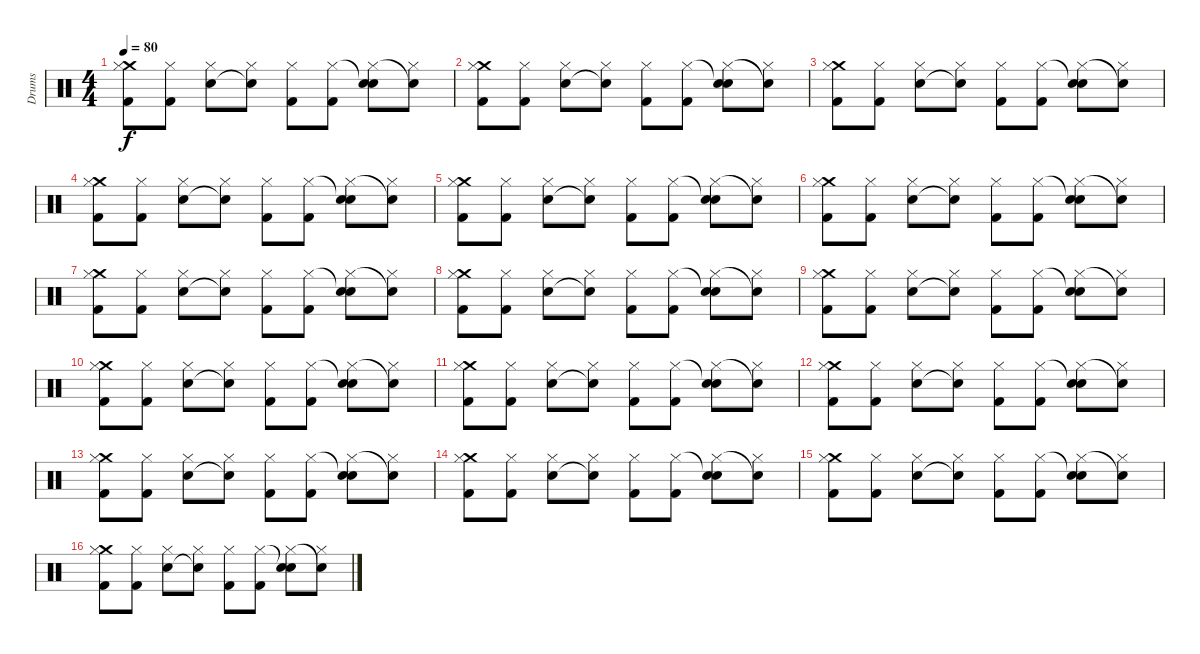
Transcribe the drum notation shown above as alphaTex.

\track ("Drums" "Drums") {instrument percussion}
\staff {score}
\articulation defaults
\ts (4 4)
\tempo 80
\clef neutral
\ks c
("Crash medium (hit)" "Hi-Hat (closed)" "Kick (hit) 2").8{dy f} ("Hi-Hat (closed)" "Kick (hit) 2").8 ("Hi-Hat (closed)" "Electric Snare (hit)").8 ("Hi-Hat (closed)" "Snare (hit)"{t}).8 ("Hi-Hat (closed)" "Kick (hit) 2").8 ("Hi-Hat (closed)" "Kick (hit) 2").8 ("Snare (hit)"{t} "Hi-Hat (closed)" "Electric Snare (hit)").8 ("Hi-Hat (closed)" "Snare (hit)"{t}).8 |
("Crash medium (hit)" "Hi-Hat (closed)" "Kick (hit) 2").8 ("Hi-Hat (closed)" "Kick (hit) 2").8 ("Hi-Hat (closed)" "Electric Snare (hit)").8 ("Hi-Hat (closed)" "Snare (hit)"{t}).8 ("Hi-Hat (closed)" "Kick (hit) 2").8 ("Hi-Hat (closed)" "Kick (hit) 2").8 ("Snare (hit)"{t} "Hi-Hat (closed)" "Electric Snare (hit)").8 ("Hi-Hat (closed)" "Snare (hit)"{t}).8 |
("Crash medium (hit)" "Hi-Hat (closed)" "Kick (hit) 2").8 ("Hi-Hat (closed)" "Kick (hit) 2").8 ("Hi-Hat (closed)" "Electric Snare (hit)").8 ("Hi-Hat (closed)" "Snare (hit)"{t}).8 ("Hi-Hat (closed)" "Kick (hit) 2").8 ("Hi-Hat (closed)" "Kick (hit) 2").8 ("Snare (hit)"{t} "Hi-Hat (closed)" "Electric Snare (hit)").8 ("Hi-Hat (closed)" "Snare (hit)"{t}).8 |
("Crash medium (hit)" "Hi-Hat (closed)" "Kick (hit) 2").8 ("Hi-Hat (closed)" "Kick (hit) 2").8 ("Hi-Hat (closed)" "Electric Snare (hit)").8 ("Hi-Hat (closed)" "Snare (hit)"{t}).8 ("Hi-Hat (closed)" "Kick (hit) 2").8 ("Hi-Hat (closed)" "Kick (hit) 2").8 ("Snare (hit)"{t} "Hi-Hat (closed)" "Electric Snare (hit)").8 ("Hi-Hat (closed)" "Snare (hit)"{t}).8 |
("Crash medium (hit)" "Hi-Hat (closed)" "Kick (hit) 2").8 ("Hi-Hat (closed)" "Kick (hit) 2").8 ("Hi-Hat (closed)" "Electric Snare (hit)").8 ("Hi-Hat (closed)" "Snare (hit)"{t}).8 ("Hi-Hat (closed)" "Kick (hit) 2").8 ("Hi-Hat (closed)" "Kick (hit) 2").8 ("Snare (hit)"{t} "Hi-Hat (closed)" "Electric Snare (hit)").8 ("Hi-Hat (closed)" "Snare (hit)"{t}).8 |
("Crash medium (hit)" "Hi-Hat (closed)" "Kick (hit) 2").8 ("Hi-Hat (closed)" "Kick (hit) 2").8 ("Hi-Hat (closed)" "Electric Snare (hit)").8 ("Hi-Hat (closed)" "Snare (hit)"{t}).8 ("Hi-Hat (closed)" "Kick (hit) 2").8 ("Hi-Hat (closed)" "Kick (hit) 2").8 ("Snare (hit)"{t} "Hi-Hat (closed)" "Electric Snare (hit)").8 ("Hi-Hat (closed)" "Snare (hit)"{t}).8 |
("Crash medium (hit)" "Hi-Hat (closed)" "Kick (hit) 2").8 ("Hi-Hat (closed)" "Kick (hit) 2").8 ("Hi-Hat (closed)" "Electric Snare (hit)").8 ("Hi-Hat (closed)" "Snare (hit)"{t}).8 ("Hi-Hat (closed)" "Kick (hit) 2").8 ("Hi-Hat (closed)" "Kick (hit) 2").8 ("Snare (hit)"{t} "Hi-Hat (closed)" "Electric Snare (hit)").8 ("Hi-Hat (closed)" "Snare (hit)"{t}).8 |
("Crash medium (hit)" "Hi-Hat (closed)" "Kick (hit) 2").8 ("Hi-Hat (closed)" "Kick (hit) 2").8 ("Hi-Hat (closed)" "Electric Snare (hit)").8 ("Hi-Hat (closed)" "Snare (hit)"{t}).8 ("Hi-Hat (closed)" "Kick (hit) 2").8 ("Hi-Hat (closed)" "Kick (hit) 2").8 ("Snare (hit)"{t} "Hi-Hat (closed)" "Electric Snare (hit)").8 ("Hi-Hat (closed)" "Snare (hit)"{t}).8 |
("Crash medium (hit)" "Hi-Hat (closed)" "Kick (hit) 2").8 ("Hi-Hat (closed)" "Kick (hit) 2").8 ("Hi-Hat (closed)" "Electric Snare (hit)").8 ("Hi-Hat (closed)" "Snare (hit)"{t}).8 ("Hi-Hat (closed)" "Kick (hit) 2").8 ("Hi-Hat (closed)" "Kick (hit) 2").8 ("Snare (hit)"{t} "Hi-Hat (closed)" "Electric Snare (hit)").8 ("Hi-Hat (closed)" "Snare (hit)"{t}).8 |
("Crash medium (hit)" "Hi-Hat (closed)" "Kick (hit) 2").8 ("Hi-Hat (closed)" "Kick (hit) 2").8 ("Hi-Hat (closed)" "Electric Snare (hit)").8 ("Hi-Hat (closed)" "Snare (hit)"{t}).8 ("Hi-Hat (closed)" "Kick (hit) 2").8 ("Hi-Hat (closed)" "Kick (hit) 2").8 ("Snare (hit)"{t} "Hi-Hat (closed)" "Electric Snare (hit)").8 ("Hi-Hat (closed)" "Snare (hit)"{t}).8 |
("Crash medium (hit)" "Hi-Hat (closed)" "Kick (hit) 2").8 ("Hi-Hat (closed)" "Kick (hit) 2").8 ("Hi-Hat (closed)" "Electric Snare (hit)").8 ("Hi-Hat (closed)" "Snare (hit)"{t}).8 ("Hi-Hat (closed)" "Kick (hit) 2").8 ("Hi-Hat (closed)" "Kick (hit) 2").8 ("Snare (hit)"{t} "Hi-Hat (closed)" "Electric Snare (hit)").8 ("Hi-Hat (closed)" "Snare (hit)"{t}).8 |
("Crash medium (hit)" "Hi-Hat (closed)" "Kick (hit) 2").8 ("Hi-Hat (closed)" "Kick (hit) 2").8 ("Hi-Hat (closed)" "Electric Snare (hit)").8 ("Hi-Hat (closed)" "Snare (hit)"{t}).8 ("Hi-Hat (closed)" "Kick (hit) 2").8 ("Hi-Hat (closed)" "Kick (hit) 2").8 ("Snare (hit)"{t} "Hi-Hat (closed)" "Electric Snare (hit)").8 ("Hi-Hat (closed)" "Snare (hit)"{t}).8 |
("Crash medium (hit)" "Hi-Hat (closed)" "Kick (hit) 2").8 ("Hi-Hat (closed)" "Kick (hit) 2").8 ("Hi-Hat (closed)" "Electric Snare (hit)").8 ("Hi-Hat (closed)" "Snare (hit)"{t}).8 ("Hi-Hat (closed)" "Kick (hit) 2").8 ("Hi-Hat (closed)" "Kick (hit) 2").8 ("Snare (hit)"{t} "Hi-Hat (closed)" "Electric Snare (hit)").8 ("Hi-Hat (closed)" "Snare (hit)"{t}).8 |
("Crash medium (hit)" "Hi-Hat (closed)" "Kick (hit) 2").8 ("Hi-Hat (closed)" "Kick (hit) 2").8 ("Hi-Hat (closed)" "Electric Snare (hit)").8 ("Hi-Hat (closed)" "Snare (hit)"{t}).8 ("Hi-Hat (closed)" "Kick (hit) 2").8 ("Hi-Hat (closed)" "Kick (hit) 2").8 ("Snare (hit)"{t} "Hi-Hat (closed)" "Electric Snare (hit)").8 ("Hi-Hat (closed)" "Snare (hit)"{t}).8 |
("Crash medium (hit)" "Hi-Hat (closed)" "Kick (hit) 2").8 ("Hi-Hat (closed)" "Kick (hit) 2").8 ("Hi-Hat (closed)" "Electric Snare (hit)").8 ("Hi-Hat (closed)" "Snare (hit)"{t}).8 ("Hi-Hat (closed)" "Kick (hit) 2").8 ("Hi-Hat (closed)" "Kick (hit) 2").8 ("Snare (hit)"{t} "Hi-Hat (closed)" "Electric Snare (hit)").8 ("Hi-Hat (closed)" "Snare (hit)"{t}).8 |
("Crash medium (hit)" "Hi-Hat (closed)" "Kick (hit) 2").8 ("Hi-Hat (closed)" "Kick (hit) 2").8 ("Hi-Hat (closed)" "Electric Snare (hit)").8 ("Hi-Hat (closed)" "Snare (hit)"{t}).8 ("Hi-Hat (closed)" "Kick (hit) 2").8 ("Hi-Hat (closed)" "Kick (hit) 2").8 ("Snare (hit)"{t} "Hi-Hat (closed)" "Electric Snare (hit)").8 ("Hi-Hat (closed)" "Snare (hit)"{t}).8
